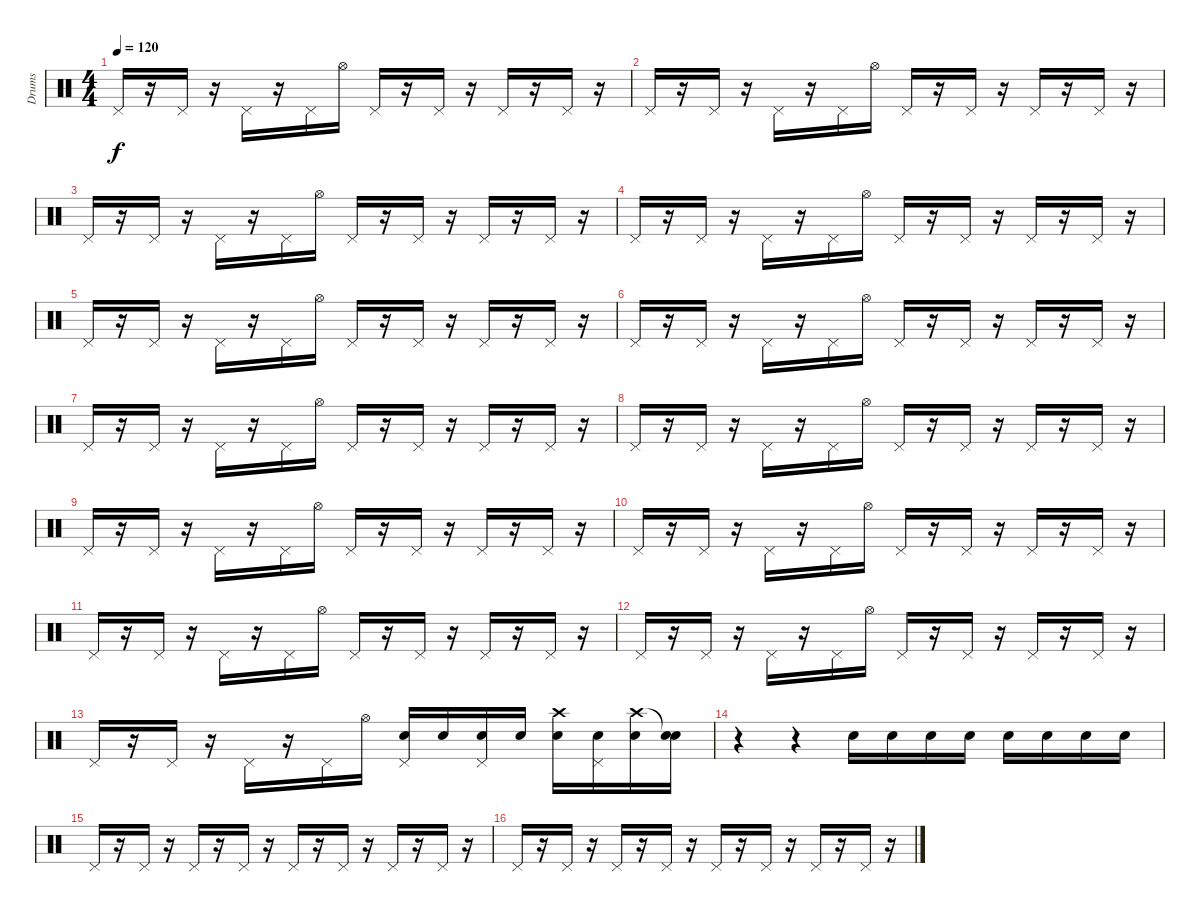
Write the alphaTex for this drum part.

\track ("Drums" "Drums") {instrument percussion}
\staff {score}
\articulation defaults
\ts (4 4)
\tempo 120
\clef neutral
\ks c "Pedal Hi-Hat (hit)".16{dy f}
r.16 "Pedal Hi-Hat (hit)".16 r.16 "Pedal Hi-Hat (hit)".16 r.16 "Pedal Hi-Hat (hit)".16 "Hi-Hat (open)".16 "Pedal Hi-Hat (hit)".16 r.16 "Pedal Hi-Hat (hit)".16 r.16 "Pedal Hi-Hat (hit)".16 r.16 "Pedal Hi-Hat (hit)".16 r.16 |
"Pedal Hi-Hat (hit)".16 r.16 "Pedal Hi-Hat (hit)".16 r.16 "Pedal Hi-Hat (hit)".16 r.16 "Pedal Hi-Hat (hit)".16 "Hi-Hat (open)".16 "Pedal Hi-Hat (hit)".16 r.16 "Pedal Hi-Hat (hit)".16 r.16 "Pedal Hi-Hat (hit)".16 r.16 "Pedal Hi-Hat (hit)".16 r.16 |
"Pedal Hi-Hat (hit)".16 r.16 "Pedal Hi-Hat (hit)".16 r.16 "Pedal Hi-Hat (hit)".16 r.16 "Pedal Hi-Hat (hit)".16 "Hi-Hat (open)".16 "Pedal Hi-Hat (hit)".16 r.16 "Pedal Hi-Hat (hit)".16 r.16 "Pedal Hi-Hat (hit)".16 r.16 "Pedal Hi-Hat (hit)".16 r.16 |
"Pedal Hi-Hat (hit)".16 r.16 "Pedal Hi-Hat (hit)".16 r.16 "Pedal Hi-Hat (hit)".16 r.16 "Pedal Hi-Hat (hit)".16 "Hi-Hat (open)".16 "Pedal Hi-Hat (hit)".16 r.16 "Pedal Hi-Hat (hit)".16 r.16 "Pedal Hi-Hat (hit)".16 r.16 "Pedal Hi-Hat (hit)".16 r.16 |
"Pedal Hi-Hat (hit)".16 r.16 "Pedal Hi-Hat (hit)".16 r.16 "Pedal Hi-Hat (hit)".16 r.16 "Pedal Hi-Hat (hit)".16 "Hi-Hat (open)".16 "Pedal Hi-Hat (hit)".16 r.16 "Pedal Hi-Hat (hit)".16 r.16 "Pedal Hi-Hat (hit)".16 r.16 "Pedal Hi-Hat (hit)".16 r.16 |
"Pedal Hi-Hat (hit)".16 r.16 "Pedal Hi-Hat (hit)".16 r.16 "Pedal Hi-Hat (hit)".16 r.16 "Pedal Hi-Hat (hit)".16 "Hi-Hat (open)".16 "Pedal Hi-Hat (hit)".16 r.16 "Pedal Hi-Hat (hit)".16 r.16 "Pedal Hi-Hat (hit)".16 r.16 "Pedal Hi-Hat (hit)".16 r.16 |
"Pedal Hi-Hat (hit)".16 r.16 "Pedal Hi-Hat (hit)".16 r.16 "Pedal Hi-Hat (hit)".16 r.16 "Pedal Hi-Hat (hit)".16 "Hi-Hat (open)".16 "Pedal Hi-Hat (hit)".16 r.16 "Pedal Hi-Hat (hit)".16 r.16 "Pedal Hi-Hat (hit)".16 r.16 "Pedal Hi-Hat (hit)".16 r.16 |
"Pedal Hi-Hat (hit)".16 r.16 "Pedal Hi-Hat (hit)".16 r.16 "Pedal Hi-Hat (hit)".16 r.16 "Pedal Hi-Hat (hit)".16 "Hi-Hat (open)".16 "Pedal Hi-Hat (hit)".16 r.16 "Pedal Hi-Hat (hit)".16 r.16 "Pedal Hi-Hat (hit)".16 r.16 "Pedal Hi-Hat (hit)".16 r.16 |
"Pedal Hi-Hat (hit)".16 r.16 "Pedal Hi-Hat (hit)".16 r.16 "Pedal Hi-Hat (hit)".16 r.16 "Pedal Hi-Hat (hit)".16 "Hi-Hat (open)".16 "Pedal Hi-Hat (hit)".16 r.16 "Pedal Hi-Hat (hit)".16 r.16 "Pedal Hi-Hat (hit)".16 r.16 "Pedal Hi-Hat (hit)".16 r.16 |
"Pedal Hi-Hat (hit)".16 r.16 "Pedal Hi-Hat (hit)".16 r.16 "Pedal Hi-Hat (hit)".16 r.16 "Pedal Hi-Hat (hit)".16 "Hi-Hat (open)".16 "Pedal Hi-Hat (hit)".16 r.16 "Pedal Hi-Hat (hit)".16 r.16 "Pedal Hi-Hat (hit)".16 r.16 "Pedal Hi-Hat (hit)".16 r.16 |
"Pedal Hi-Hat (hit)".16 r.16 "Pedal Hi-Hat (hit)".16 r.16 "Pedal Hi-Hat (hit)".16 r.16 "Pedal Hi-Hat (hit)".16 "Hi-Hat (open)".16 "Pedal Hi-Hat (hit)".16 r.16 "Pedal Hi-Hat (hit)".16 r.16 "Pedal Hi-Hat (hit)".16 r.16 "Pedal Hi-Hat (hit)".16 r.16 |
"Pedal Hi-Hat (hit)".16 r.16 "Pedal Hi-Hat (hit)".16 r.16 "Pedal Hi-Hat (hit)".16 r.16 "Pedal Hi-Hat (hit)".16 "Hi-Hat (open)".16 "Pedal Hi-Hat (hit)".16 r.16 "Pedal Hi-Hat (hit)".16 r.16 "Pedal Hi-Hat (hit)".16 r.16 "Pedal Hi-Hat (hit)".16 r.16 |
"Pedal Hi-Hat (hit)".16 r.16 "Pedal Hi-Hat (hit)".16 r.16 "Pedal Hi-Hat (hit)".16 r.16 "Pedal Hi-Hat (hit)".16 "Hi-Hat (open)".16 ("Pedal Hi-Hat (hit)" "Electric Snare (hit)").16 "Electric Snare (hit)".16 ("Pedal Hi-Hat (hit)" "Electric Snare (hit)").16 "Electric Snare (hit)".16 ("Crash high (hit)" "Electric Snare (hit)").16 ("Pedal Hi-Hat (hit)" "Electric Snare (hit)").16 ("Crash high (hit)" "Electric Snare (hit)").16 ("Snare (hit)"{t} "Electric Snare (hit)").16 |
r.4 r.4 "Electric Snare (hit)".16 "Electric Snare (hit)".16 "Electric Snare (hit)".16 "Electric Snare (hit)".16 "Electric Snare (hit)".16 "Electric Snare (hit)".16 "Electric Snare (hit)".16 "Electric Snare (hit)".16 |
"Pedal Hi-Hat (hit)".16 r.16 "Pedal Hi-Hat (hit)".16 r.16 "Pedal Hi-Hat (hit)".16 r.16 "Pedal Hi-Hat (hit)".16 r.16 "Pedal Hi-Hat (hit)".16 r.16 "Pedal Hi-Hat (hit)".16 r.16 "Pedal Hi-Hat (hit)".16 r.16 "Pedal Hi-Hat (hit)".16 r.16 |
"Pedal Hi-Hat (hit)".16 r.16 "Pedal Hi-Hat (hit)".16 r.16 "Pedal Hi-Hat (hit)".16 r.16 "Pedal Hi-Hat (hit)".16 r.16 "Pedal Hi-Hat (hit)".16 r.16 "Pedal Hi-Hat (hit)".16 r.16 "Pedal Hi-Hat (hit)".16 r.16 "Pedal Hi-Hat (hit)".16 r.16
